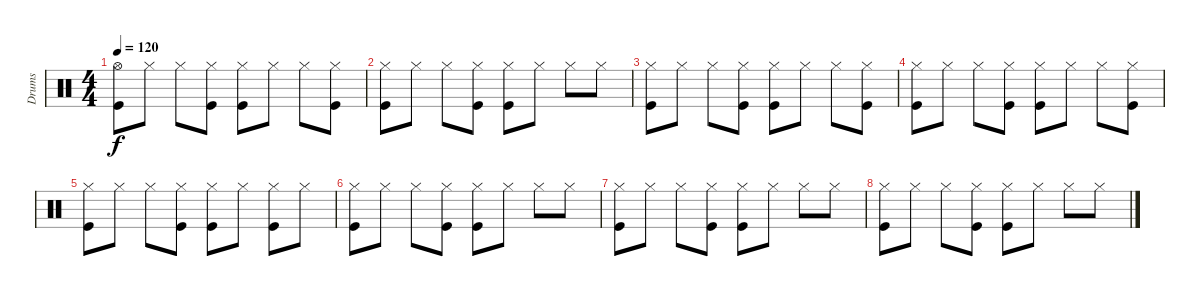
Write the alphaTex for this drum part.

\track ("Drums" "Drums") {instrument percussion}
\staff {score}
\articulation defaults
\ts (4 4)
\tempo 120
\clef neutral
\ks c
("Hi-Hat (open)" "Kick (hit)").8{dy f} "Hi-Hat (closed)".8 "Hi-Hat (closed)".8 ("Hi-Hat (closed)" "Kick (hit)").8 ("Hi-Hat (closed)" "Kick (hit)").8 "Hi-Hat (closed)".8 "Hi-Hat (closed)".8 ("Hi-Hat (closed)" "Kick (hit)").8 |
("Hi-Hat (closed)" "Kick (hit)").8 "Hi-Hat (closed)".8 "Hi-Hat (closed)".8 ("Hi-Hat (closed)" "Kick (hit)").8 ("Hi-Hat (closed)" "Kick (hit)").8 "Hi-Hat (closed)".8 "Hi-Hat (closed)".8 "Hi-Hat (closed)".8 |
("Hi-Hat (closed)" "Kick (hit)").8 "Hi-Hat (closed)".8 "Hi-Hat (closed)".8 ("Hi-Hat (closed)" "Kick (hit)").8 ("Hi-Hat (closed)" "Kick (hit)").8 "Hi-Hat (closed)".8 "Hi-Hat (closed)".8 ("Hi-Hat (closed)" "Kick (hit)").8 |
("Hi-Hat (closed)" "Kick (hit)").8 "Hi-Hat (closed)".8 "Hi-Hat (closed)".8 ("Hi-Hat (closed)" "Kick (hit)").8 ("Hi-Hat (closed)" "Kick (hit)").8 "Hi-Hat (closed)".8 "Hi-Hat (closed)".8 ("Hi-Hat (closed)" "Kick (hit)").8 |
("Hi-Hat (closed)" "Kick (hit)").8 "Hi-Hat (closed)".8 "Hi-Hat (closed)".8 ("Hi-Hat (closed)" "Kick (hit)").8 ("Hi-Hat (closed)" "Kick (hit)").8 "Hi-Hat (closed)".8 ("Hi-Hat (closed)" "Kick (hit)").8 "Hi-Hat (closed)".8 |
("Hi-Hat (closed)" "Kick (hit)").8 "Hi-Hat (closed)".8 "Hi-Hat (closed)".8 ("Hi-Hat (closed)" "Kick (hit)").8 ("Hi-Hat (closed)" "Kick (hit)").8 "Hi-Hat (closed)".8 "Hi-Hat (closed)".8 "Hi-Hat (closed)".8 |
("Hi-Hat (closed)" "Kick (hit)").8 "Hi-Hat (closed)".8 "Hi-Hat (closed)".8 ("Hi-Hat (closed)" "Kick (hit)").8 ("Hi-Hat (closed)" "Kick (hit)").8 "Hi-Hat (closed)".8 "Hi-Hat (closed)".8 "Hi-Hat (closed)".8 |
("Hi-Hat (closed)" "Kick (hit)").8 "Hi-Hat (closed)".8 "Hi-Hat (closed)".8 ("Hi-Hat (closed)" "Kick (hit)").8 ("Hi-Hat (closed)" "Kick (hit)").8 "Hi-Hat (closed)".8 "Hi-Hat (closed)".8 "Hi-Hat (closed)".8
